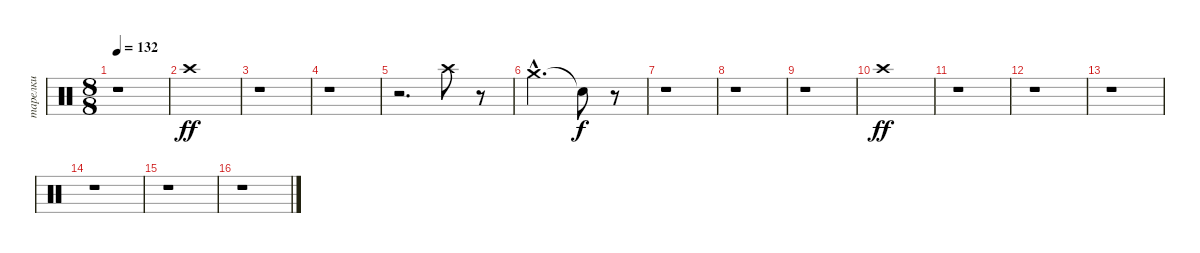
\track ("тарелки" "тарелки") {instrument percussion}
\staff {score}
\articulation defaults
\ts (8 8)
\tempo 132
\clef neutral
\ks c
r.1{dy ff} |
"Crash high (hit)".1 |
r.1 |
r.1 |
r.2{d} "Crash high (hit)".8 r.8 |
"Crash medium (hit)"{hac}.2{d} "Snare (hit)"{t}.8{dy f} r.8 |
r.1 |
r.1 |
r.1 |
"Crash high (hit)".1{dy ff} |
r.1 |
r.1 |
r.1 |
r.1 |
r.1 |
r.1
